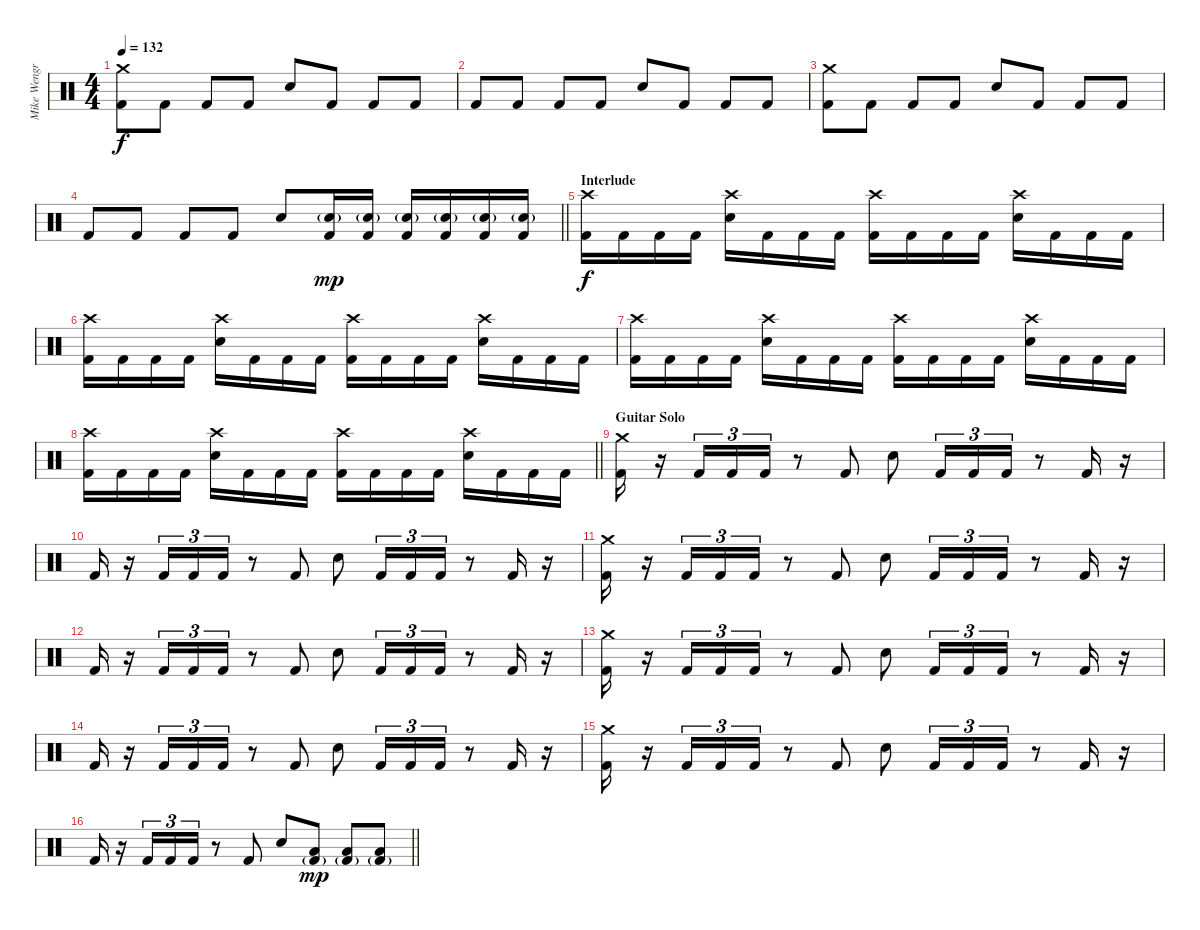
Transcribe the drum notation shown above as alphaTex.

\track ("Mike Wengren" "Mike Wengr") {instrument percussion}
\staff {score}
\articulation defaults
\ts (4 4)
\tempo 132
\clef neutral
\ks c
("Crash medium (hit)" "Kick (hit) 2").8{dy f} "Kick (hit) 2".8 "Kick (hit) 2".8 "Kick (hit) 2".8 "Electric Snare (hit)".8 "Kick (hit) 2".8 "Kick (hit) 2".8 "Kick (hit) 2".8 |
"Kick (hit) 2".8 "Kick (hit) 2".8 "Kick (hit) 2".8 "Kick (hit) 2".8 "Electric Snare (hit)".8 "Kick (hit) 2".8 "Kick (hit) 2".8 "Kick (hit) 2".8 |
("Crash medium (hit)" "Kick (hit) 2").8 "Kick (hit) 2".8 "Kick (hit) 2".8 "Kick (hit) 2".8 "Electric Snare (hit)".8 "Kick (hit) 2".8 "Kick (hit) 2".8 "Kick (hit) 2".8 |
\barLineRight lightlight "Kick (hit) 2".8 "Kick (hit) 2".8 "Kick (hit) 2".8 "Kick (hit) 2".8 "Electric Snare (hit)".8
("Electric Snare (hit)"{g} "Kick (hit) 2").16{dy mp} ("Electric Snare (hit)"{g} "Kick (hit) 2").16 ("Electric Snare (hit)"{g} "Kick (hit) 2").16 ("Electric Snare (hit)"{g} "Kick (hit) 2").16 ("Electric Snare (hit)"{g} "Kick (hit) 2").16 ("Electric Snare (hit)"{g} "Kick (hit) 2").16 |
\section ("" "Interlude")
("Crash high (hit)" "Kick (hit) 2").16{dy f} "Kick (hit) 2".16 "Kick (hit) 2".16 "Kick (hit) 2".16 ("Crash high (hit)" "Electric Snare (hit)").16 "Kick (hit) 2".16 "Kick (hit) 2".16 "Kick (hit) 2".16 ("Crash high (hit)" "Kick (hit) 2").16 "Kick (hit) 2".16 "Kick (hit) 2".16 "Kick (hit) 2".16 ("Crash high (hit)" "Electric Snare (hit)").16 "Kick (hit) 2".16 "Kick (hit) 2".16 "Kick (hit) 2".16 |
("Crash high (hit)" "Kick (hit) 2").16 "Kick (hit) 2".16 "Kick (hit) 2".16 "Kick (hit) 2".16 ("Crash high (hit)" "Electric Snare (hit)").16 "Kick (hit) 2".16 "Kick (hit) 2".16 "Kick (hit) 2".16 ("Crash high (hit)" "Kick (hit) 2").16 "Kick (hit) 2".16 "Kick (hit) 2".16 "Kick (hit) 2".16 ("Crash high (hit)" "Electric Snare (hit)").16 "Kick (hit) 2".16 "Kick (hit) 2".16 "Kick (hit) 2".16 |
("Crash high (hit)" "Kick (hit) 2").16 "Kick (hit) 2".16 "Kick (hit) 2".16 "Kick (hit) 2".16 ("Crash high (hit)" "Electric Snare (hit)").16 "Kick (hit) 2".16 "Kick (hit) 2".16 "Kick (hit) 2".16 ("Crash high (hit)" "Kick (hit) 2").16 "Kick (hit) 2".16 "Kick (hit) 2".16 "Kick (hit) 2".16 ("Crash high (hit)" "Electric Snare (hit)").16 "Kick (hit) 2".16 "Kick (hit) 2".16 "Kick (hit) 2".16 |
\barLineRight lightlight
("Crash high (hit)" "Kick (hit) 2").16 "Kick (hit) 2".16 "Kick (hit) 2".16 "Kick (hit) 2".16 ("Crash high (hit)" "Electric Snare (hit)").16 "Kick (hit) 2".16 "Kick (hit) 2".16 "Kick (hit) 2".16 ("Crash high (hit)" "Kick (hit) 2").16 "Kick (hit) 2".16 "Kick (hit) 2".16 "Kick (hit) 2".16 ("Crash high (hit)" "Electric Snare (hit)").16 "Kick (hit) 2".16 "Kick (hit) 2".16 "Kick (hit) 2".16 |
\section ("" "Guitar Solo")
("Crash medium (hit)" "Kick (hit) 2").16 r.16 "Kick (hit) 2".16{tu (3 2)} "Kick (hit) 2".16{tu (3 2)} "Kick (hit) 2".16{tu (3 2)} r.8 "Kick (hit) 2".8 "Electric Snare (hit)".8 "Kick (hit) 2".16{tu (3 2)} "Kick (hit) 2".16{tu (3 2)} "Kick (hit) 2".16{tu (3 2)} r.8 "Kick (hit) 2".16 r.16 |
"Kick (hit) 2".16 r.16 "Kick (hit) 2".16{tu (3 2)} "Kick (hit) 2".16{tu (3 2)} "Kick (hit) 2".16{tu (3 2)} r.8 "Kick (hit) 2".8 "Electric Snare (hit)".8 "Kick (hit) 2".16{tu (3 2)} "Kick (hit) 2".16{tu (3 2)} "Kick (hit) 2".16{tu (3 2)} r.8 "Kick (hit) 2".16 r.16 |
("Crash medium (hit)" "Kick (hit) 2").16 r.16 "Kick (hit) 2".16{tu (3 2)} "Kick (hit) 2".16{tu (3 2)} "Kick (hit) 2".16{tu (3 2)} r.8 "Kick (hit) 2".8 "Electric Snare (hit)".8 "Kick (hit) 2".16{tu (3 2)} "Kick (hit) 2".16{tu (3 2)} "Kick (hit) 2".16{tu (3 2)} r.8 "Kick (hit) 2".16 r.16 |
"Kick (hit) 2".16 r.16 "Kick (hit) 2".16{tu (3 2)} "Kick (hit) 2".16{tu (3 2)} "Kick (hit) 2".16{tu (3 2)} r.8 "Kick (hit) 2".8 "Electric Snare (hit)".8 "Kick (hit) 2".16{tu (3 2)} "Kick (hit) 2".16{tu (3 2)} "Kick (hit) 2".16{tu (3 2)} r.8 "Kick (hit) 2".16 r.16 |
("Crash medium (hit)" "Kick (hit) 2").16 r.16 "Kick (hit) 2".16{tu (3 2)} "Kick (hit) 2".16{tu (3 2)} "Kick (hit) 2".16{tu (3 2)} r.8 "Kick (hit) 2".8 "Electric Snare (hit)".8 "Kick (hit) 2".16{tu (3 2)} "Kick (hit) 2".16{tu (3 2)} "Kick (hit) 2".16{tu (3 2)} r.8 "Kick (hit) 2".16 r.16 |
"Kick (hit) 2".16 r.16 "Kick (hit) 2".16{tu (3 2)} "Kick (hit) 2".16{tu (3 2)} "Kick (hit) 2".16{tu (3 2)} r.8 "Kick (hit) 2".8 "Electric Snare (hit)".8 "Kick (hit) 2".16{tu (3 2)} "Kick (hit) 2".16{tu (3 2)} "Kick (hit) 2".16{tu (3 2)} r.8 "Kick (hit) 2".16 r.16 |
("Crash medium (hit)" "Kick (hit) 2").16 r.16 "Kick (hit) 2".16{tu (3 2)} "Kick (hit) 2".16{tu (3 2)} "Kick (hit) 2".16{tu (3 2)} r.8 "Kick (hit) 2".8 "Electric Snare (hit)".8 "Kick (hit) 2".16{tu (3 2)} "Kick (hit) 2".16{tu (3 2)} "Kick (hit) 2".16{tu (3 2)} r.8 "Kick (hit) 2".16 r.16 |
\barLineRight lightlight "Kick (hit) 2".16
r.16 "Kick (hit) 2".16{tu (3 2)} "Kick (hit) 2".16{tu (3 2)} "Kick (hit) 2".16{tu (3 2)} r.8 "Kick (hit) 2".8 "Electric Snare (hit)".8 ("Low Floor Tom (hit)" "Kick (hit) 2"{g}).8{dy mp} ("Low Floor Tom (hit)" "Kick (hit) 2"{g}).8 ("Low Floor Tom (hit)" "Kick (hit) 2"{g}).8
